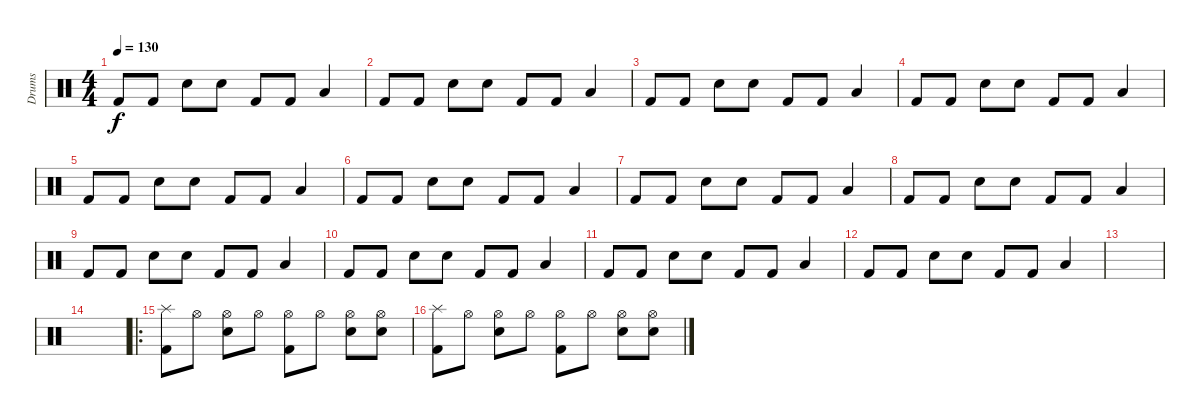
\track ("Drums" "Drums") {instrument percussion}
\staff {score}
\articulation defaults
\ts (4 4)
\tempo 130
\clef neutral
\ks c "Kick (hit) 2".8{dy f} "Kick (hit) 2".8 "Electric Snare (hit)".8 "Electric Snare (hit)".8 "Kick (hit) 2".8 "Kick (hit) 2".8 "Low Floor Tom (hit)".4
|
"Kick (hit) 2".8 "Kick (hit) 2".8 "Electric Snare (hit)".8 "Electric Snare (hit)".8 "Kick (hit) 2".8 "Kick (hit) 2".8 "Low Floor Tom (hit)".4 |
"Kick (hit) 2".8 "Kick (hit) 2".8 "Electric Snare (hit)".8 "Electric Snare (hit)".8 "Kick (hit) 2".8 "Kick (hit) 2".8 "Low Floor Tom (hit)".4 |
"Kick (hit) 2".8 "Kick (hit) 2".8 "Electric Snare (hit)".8 "Electric Snare (hit)".8 "Kick (hit) 2".8 "Kick (hit) 2".8 "Low Floor Tom (hit)".4 |
"Kick (hit) 2".8 "Kick (hit) 2".8 "Electric Snare (hit)".8 "Electric Snare (hit)".8 "Kick (hit) 2".8 "Kick (hit) 2".8 "Low Floor Tom (hit)".4 |
"Kick (hit) 2".8 "Kick (hit) 2".8 "Electric Snare (hit)".8 "Electric Snare (hit)".8 "Kick (hit) 2".8 "Kick (hit) 2".8 "Low Floor Tom (hit)".4 |
"Kick (hit) 2".8 "Kick (hit) 2".8 "Electric Snare (hit)".8 "Electric Snare (hit)".8 "Kick (hit) 2".8 "Kick (hit) 2".8 "Low Floor Tom (hit)".4 |
"Kick (hit) 2".8 "Kick (hit) 2".8 "Electric Snare (hit)".8 "Electric Snare (hit)".8 "Kick (hit) 2".8 "Kick (hit) 2".8 "Low Floor Tom (hit)".4 |
"Kick (hit) 2".8 "Kick (hit) 2".8 "Electric Snare (hit)".8 "Electric Snare (hit)".8 "Kick (hit) 2".8 "Kick (hit) 2".8 "Low Floor Tom (hit)".4 |
"Kick (hit) 2".8 "Kick (hit) 2".8 "Electric Snare (hit)".8 "Electric Snare (hit)".8 "Kick (hit) 2".8 "Kick (hit) 2".8 "Low Floor Tom (hit)".4 |
"Kick (hit) 2".8 "Kick (hit) 2".8 "Electric Snare (hit)".8 "Electric Snare (hit)".8 "Kick (hit) 2".8 "Kick (hit) 2".8 "Low Floor Tom (hit)".4 |
"Kick (hit) 2".8 "Kick (hit) 2".8 "Electric Snare (hit)".8 "Electric Snare (hit)".8 "Kick (hit) 2".8 "Kick (hit) 2".8 "Low Floor Tom (hit)".4 |
|
|
\ro
("Splash (hit)" "Kick (hit) 2").8 "Hi-Hat (open)".8 ("Hi-Hat (open)" "Snare (hit) 2").8 "Hi-Hat (open)".8 ("Hi-Hat (open)" "Kick (hit) 2").8 "Hi-Hat (open)".8 ("Hi-Hat (open)" "Snare (hit) 2").8 ("Hi-Hat (open)" "Snare (hit) 2").8 |
("Splash (hit)" "Kick (hit) 2").8 "Hi-Hat (open)".8 ("Hi-Hat (open)" "Snare (hit) 2").8 "Hi-Hat (open)".8 ("Hi-Hat (open)" "Kick (hit) 2").8 "Hi-Hat (open)".8 ("Hi-Hat (open)" "Snare (hit) 2").8 ("Hi-Hat (open)" "Snare (hit) 2").8
